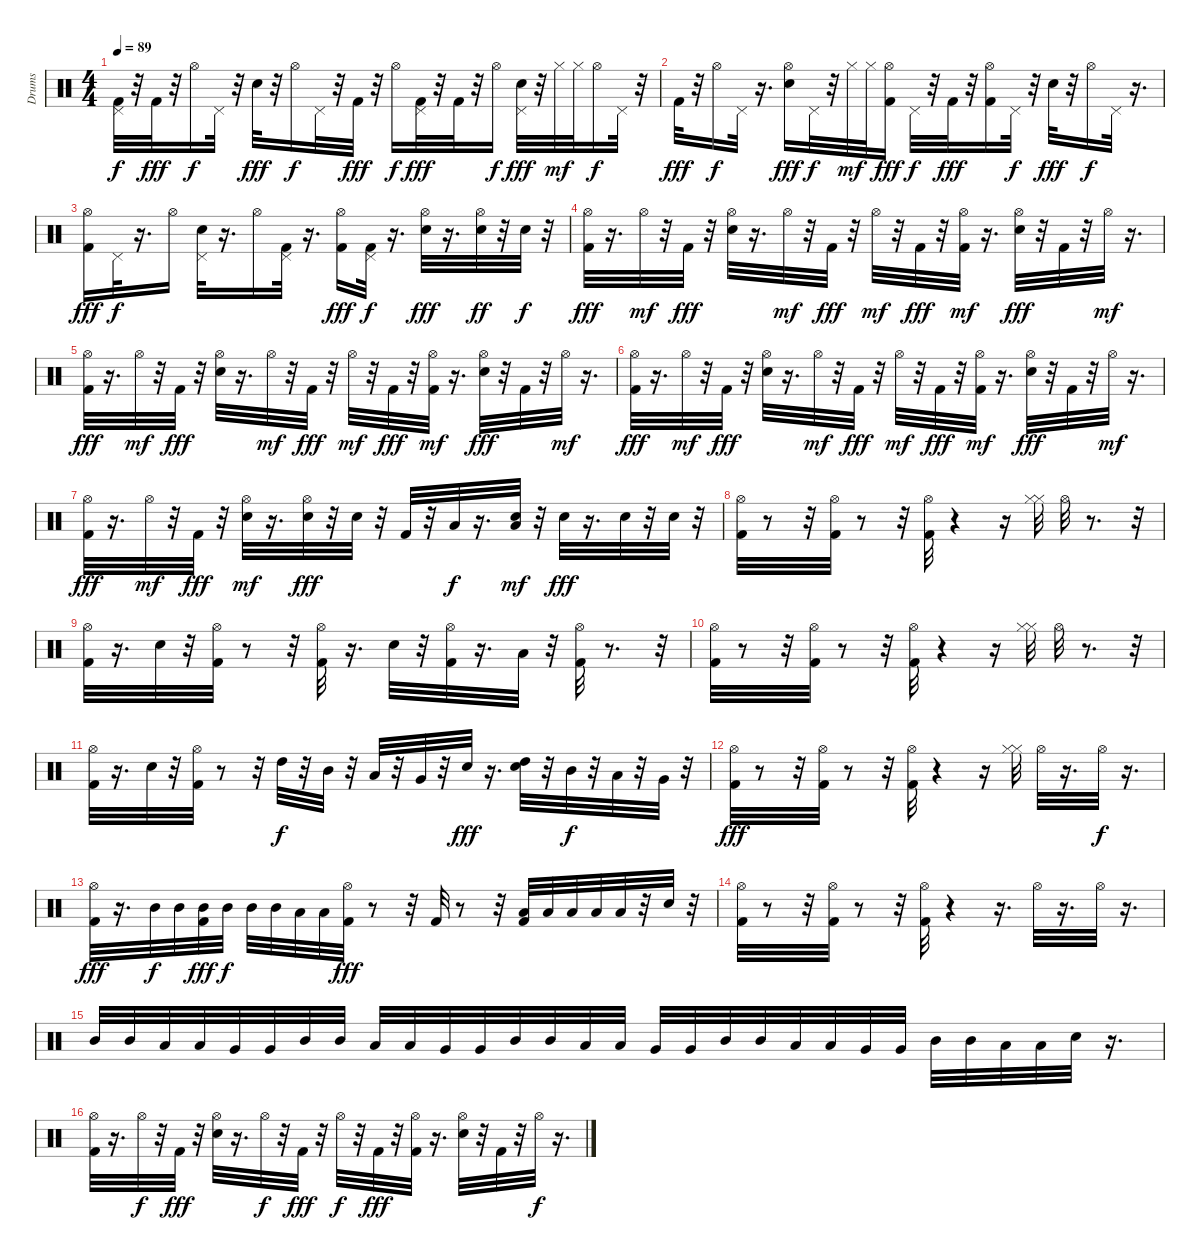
\track ("Drums" "Drums") {instrument percussion}
\staff {score}
\articulation defaults
\ts (4 4)
\tempo 89
\clef neutral
\ks c
("Kick (hit) 2" "Pedal Hi-Hat (hit)").32{dy f} r.32 "Kick (hit) 2".32{dy fff} r.32 "Hi-Hat (open)".16{dy f} "Pedal Hi-Hat (hit)".32 r.32 "Electric Snare (hit)".32{dy fff} r.32 "Hi-Hat (open)".16{dy f} "Pedal Hi-Hat (hit)".32 r.32 "Kick (hit) 2".32{dy fff} r.32 "Hi-Hat (open)".16{dy f} ("Pedal Hi-Hat (hit)" "Kick (hit) 2").32{dy fff} r.32 "Kick (hit) 2".32 r.32 "Hi-Hat (open)".16{dy f} ("Pedal Hi-Hat (hit)" "Electric Snare (hit)").32{dy fff} r.32 "Hi-Hat (closed)".32{dy mf} "Hi-Hat (closed)".32 "Hi-Hat (open)".16{dy f} "Pedal Hi-Hat (hit)".32 r.32 |
"Kick (hit) 2".32{dy fff} r.32 "Hi-Hat (open)".16{dy f} "Pedal Hi-Hat (hit)".32 r.16{d} ("Electric Snare (hit)" "Hi-Hat (open)").16{dy fff} "Pedal Hi-Hat (hit)".32{dy f} r.32 "Hi-Hat (closed)".32{dy mf} "Hi-Hat (closed)".32 ("Kick (hit) 2" "Hi-Hat (open)").16{dy fff} "Pedal Hi-Hat (hit)".32{dy f} r.32 "Kick (hit) 2".32{dy fff} r.32 ("Kick (hit) 2" "Hi-Hat (open)").16 "Pedal Hi-Hat (hit)".32{dy f} r.32 "Electric Snare (hit)".32{dy fff} r.32 "Hi-Hat (open)".16{dy f} "Pedal Hi-Hat (hit)".32 r.16{d} |
("Kick (hit) 2" "Hi-Hat (open)").16{dy fff} "Pedal Hi-Hat (hit)".32{dy f} r.16{d} "Hi-Hat (open)".16 ("Electric Snare (hit)" "Pedal Hi-Hat (hit)").32 r.16{d} "Hi-Hat (open)".16 ("Kick (hit) 2" "Pedal Hi-Hat (hit)").32 r.16{d} ("Kick (hit) 2" "Hi-Hat (open)").16{dy fff} ("Kick (hit) 2" "Pedal Hi-Hat (hit)").32{dy f} r.16{d} ("Hi-Hat (open)" "Electric Snare (hit)").32{dy fff} r.16{d} ("Hi-Hat (open)" "Electric Snare (hit)").32{dy ff} r.32 "Electric Snare (hit)".32{dy f} r.32 |
("Kick (hit) 2" "Hi-Hat (open)").32{dy fff} r.16{d} "Hi-Hat (open)".32{dy mf} r.32 "Kick (hit) 2".32{dy fff} r.32 ("Hi-Hat (open)" "Electric Snare (hit)").32 r.16{d} "Hi-Hat (open)".32{dy mf} r.32 "Kick (hit) 2".32{dy fff} r.32 "Hi-Hat (open)".32{dy mf} r.32 "Kick (hit) 2".32{dy fff} r.32 ("Kick (hit) 2" "Hi-Hat (open)").32{dy mf} r.16{d} ("Hi-Hat (open)" "Electric Snare (hit)").32{dy fff} r.32 "Kick (hit) 2".32 r.32 "Hi-Hat (open)".32{dy mf} r.16{d} |
("Kick (hit) 2" "Hi-Hat (open)").32{dy fff} r.16{d} "Hi-Hat (open)".32{dy mf} r.32 "Kick (hit) 2".32{dy fff} r.32 ("Hi-Hat (open)" "Electric Snare (hit)").32 r.16{d} "Hi-Hat (open)".32{dy mf} r.32 "Kick (hit) 2".32{dy fff} r.32 "Hi-Hat (open)".32{dy mf} r.32 "Kick (hit) 2".32{dy fff} r.32 ("Kick (hit) 2" "Hi-Hat (open)").32{dy mf} r.16{d} ("Hi-Hat (open)" "Electric Snare (hit)").32{dy fff} r.32 "Kick (hit) 2".32 r.32 "Hi-Hat (open)".32{dy mf} r.16{d} |
("Kick (hit) 2" "Hi-Hat (open)").32{dy fff} r.16{d} "Hi-Hat (open)".32{dy mf} r.32 "Kick (hit) 2".32{dy fff} r.32 ("Hi-Hat (open)" "Electric Snare (hit)").32 r.16{d} "Hi-Hat (open)".32{dy mf} r.32 "Kick (hit) 2".32{dy fff} r.32 "Hi-Hat (open)".32{dy mf} r.32 "Kick (hit) 2".32{dy fff} r.32 ("Kick (hit) 2" "Hi-Hat (open)").32{dy mf} r.16{d} ("Hi-Hat (open)" "Electric Snare (hit)").32{dy fff} r.32 "Kick (hit) 2".32 r.32 "Hi-Hat (open)".32{dy mf} r.16{d} |
("Kick (hit) 2" "Hi-Hat (open)").32{dy fff} r.16{d} "Hi-Hat (open)".32{dy mf} r.32 "Kick (hit) 2".32{dy fff} r.32 ("Electric Snare (hit)" "Hi-Hat (open)").32{dy mf} r.16{d} ("Hi-Hat (open)" "Electric Snare (hit)").32{dy fff} r.32 "Electric Snare (hit)".32 r.32 "Kick (hit) 2".32 r.32 "Low Tom (hit)".32{dy f} r.16{d} ("Electric Snare (hit)" "Low Tom (hit)").32{dy mf} r.32 "Electric Snare (hit)".32{dy fff} r.16{d} "Electric Snare (hit)".32 r.32 "Electric Snare (hit)".32 r.32 |
("Kick (hit) 2" "Hi-Hat (open)").32 r.8 r.32 ("Kick (hit) 2" "Hi-Hat (open)").32 r.8 r.32 ("Kick (hit) 2" "Hi-Hat (open)").32 r.4 r.16 ("Hi-Hat (closed)" "Hi-Hat (closed)").32 "Hi-Hat (open)".32 r.8{d} r.32 |
("Kick (hit) 2" "Hi-Hat (open)").32 r.16{d} "Electric Snare (hit)".32 r.32 ("Kick (hit) 2" "Hi-Hat (open)").32 r.8 r.32 ("Kick (hit) 2" "Hi-Hat (open)").32 r.16{d} "Electric Snare (hit)".32 r.32 ("Hi-Hat (open)" "Kick (hit) 2").32 r.16{d} "Low Tom (hit)".32 r.32 ("Kick (hit) 2" "Hi-Hat (open)").32 r.8{d} r.32 |
("Kick (hit) 2" "Hi-Hat (open)").32 r.8 r.32 ("Kick (hit) 2" "Hi-Hat (open)").32 r.8 r.32 ("Kick (hit) 2" "Hi-Hat (open)").32 r.4 r.16 ("Hi-Hat (closed)" "Hi-Hat (closed)").32 "Hi-Hat (open)".32 r.8{d} r.32 |
("Kick (hit) 2" "Hi-Hat (open)").32 r.16{d} "Electric Snare (hit)".32 r.32 ("Kick (hit) 2" "Hi-Hat (open)").32 r.8 r.32 "High Tom (hit)".32{dy f} r.32 "Mid Tom (hit)".32 r.32 "Low Tom (hit)".32 r.32 "Very Low Tom (hit)".32 r.32 "Electric Snare (hit)".32{dy fff} r.16{d} ("High Tom (hit)" "Electric Snare (hit)").32 r.32 "Mid Tom (hit)".32{dy f} r.32 "Low Tom (hit)".32 r.32 "Very Low Tom (hit)".32 r.32 |
("Kick (hit) 2" "Hi-Hat (open)").32{dy fff} r.8 r.32 ("Kick (hit) 2" "Hi-Hat (open)").32 r.8 r.32 ("Kick (hit) 2" "Hi-Hat (open)").32 r.4 r.16 ("Hi-Hat (closed)" "Hi-Hat (closed)").32 "Hi-Hat (open)".32 r.16{d} "Hi-Hat (open)".32{dy f} r.16{d} |
("Kick (hit) 2" "Hi-Hat (open)").32{dy fff} r.16{d} "Mid Tom (hit)".32{dy f} "Mid Tom (hit)".32 ("Mid Tom (hit)" "Kick (hit) 2").32{dy fff} "Mid Tom (hit)".32{dy f} "Mid Tom (hit)".32 "Mid Tom (hit)".32 "Low Tom (hit)".32 "Low Tom (hit)".32 ("Kick (hit) 2" "Hi-Hat (open)").32{dy fff} r.8 r.32 "Kick (hit) 2".32 r.8 r.32 ("Low Tom (hit)" "Kick (hit) 2").32 "Low Tom (hit)".32 "Low Tom (hit)".32 "Low Tom (hit)".32 "Low Tom (hit)".32 r.32 "Electric Snare (hit)".32 r.32 |
("Kick (hit) 2" "Hi-Hat (open)").32 r.8 r.32 ("Kick (hit) 2" "Hi-Hat (open)").32 r.8 r.32 ("Kick (hit) 2" "Hi-Hat (open)").32 r.4 r.16{d} "Hi-Hat (open)".32 r.16{d} "Hi-Hat (open)".32 r.16{d} |
"Mid Tom (hit)".32 "Mid Tom (hit)".32 "Low Tom (hit)".32 "Low Tom (hit)".32 "Very Low Tom (hit)".32 "Very Low Tom (hit)".32 "Mid Tom (hit)".32 "Mid Tom (hit)".32 "Low Tom (hit)".32 "Low Tom (hit)".32 "Very Low Tom (hit)".32 "Very Low Tom (hit)".32 "Mid Tom (hit)".32 "Mid Tom (hit)".32 "Low Tom (hit)".32 "Low Tom (hit)".32 "Very Low Tom (hit)".32 "Very Low Tom (hit)".32 "Mid Tom (hit)".32 "Mid Tom (hit)".32 "Low Tom (hit)".32 "Low Tom (hit)".32 "Very Low Tom (hit)".32 "Very Low Tom (hit)".32 "Mid Tom (hit)".32 "Mid Tom (hit)".32 "Low Tom (hit)".32 "Low Tom (hit)".32 "Electric Snare (hit)".32 r.16{d} |
("Hi-Hat (open)" "Kick (hit) 2").32 r.16{d} "Hi-Hat (open)".32{dy f} r.32 "Kick (hit) 2".32{dy fff} r.32 ("Hi-Hat (open)" "Electric Snare (hit)").32 r.16{d} "Hi-Hat (open)".32{dy f} r.32 "Kick (hit) 2".32{dy fff} r.32 "Hi-Hat (open)".32{dy f} r.32 "Kick (hit) 2".32{dy fff} r.32 ("Hi-Hat (open)" "Kick (hit) 2").32 r.16{d} ("Electric Snare (hit)" "Hi-Hat (open)").32 r.32 "Kick (hit) 2".32 r.32 "Hi-Hat (open)".32{dy f} r.16{d}
